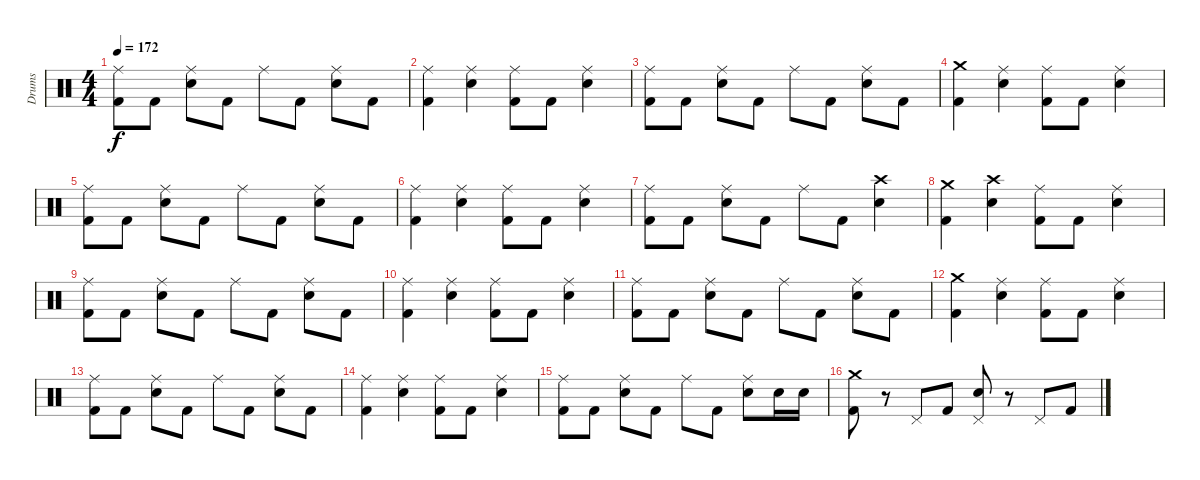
\track ("Drums" "Drums") {instrument percussion}
\staff {score}
\articulation defaults
\ts (4 4)
\tempo 172
\clef neutral
\ks c
("Ride (middle)" "Kick (hit) 2").8{dy f} "Kick (hit) 2".8 ("Ride (middle)" "Electric Snare (hit)").8 "Kick (hit) 2".8 "Ride (middle)".8 "Kick (hit) 2".8 ("Ride (middle)" "Electric Snare (hit)").8 "Kick (hit) 2".8 |
("Ride (middle)" "Kick (hit) 2").4 ("Ride (middle)" "Electric Snare (hit)").4 ("Ride (middle)" "Kick (hit) 2").8 "Kick (hit) 2".8 ("Ride (middle)" "Electric Snare (hit)").4 |
("Ride (middle)" "Kick (hit) 2").8 "Kick (hit) 2".8 ("Ride (middle)" "Electric Snare (hit)").8 "Kick (hit) 2".8 "Ride (middle)".8 "Kick (hit) 2".8 ("Ride (middle)" "Electric Snare (hit)").8 "Kick (hit) 2".8 |
("Crash medium (hit)" "Kick (hit) 2").4 ("Ride (middle)" "Electric Snare (hit)").4 ("Ride (middle)" "Kick (hit) 2").8 "Kick (hit) 2".8 ("Ride (middle)" "Electric Snare (hit)").4 |
("Ride (middle)" "Kick (hit) 2").8 "Kick (hit) 2".8 ("Ride (middle)" "Electric Snare (hit)").8 "Kick (hit) 2".8 "Ride (middle)".8 "Kick (hit) 2".8 ("Ride (middle)" "Electric Snare (hit)").8 "Kick (hit) 2".8 |
("Ride (middle)" "Kick (hit) 2").4 ("Ride (middle)" "Electric Snare (hit)").4 ("Ride (middle)" "Kick (hit) 2").8 "Kick (hit) 2".8 ("Ride (middle)" "Electric Snare (hit)").4 |
("Ride (middle)" "Kick (hit) 2").8 "Kick (hit) 2".8 ("Ride (middle)" "Electric Snare (hit)").8 "Kick (hit) 2".8 "Ride (middle)".8 "Kick (hit) 2".8 ("Crash high (hit)" "Electric Snare (hit)").4 |
("Crash medium (hit)" "Kick (hit) 2").4 ("Crash high (hit)" "Electric Snare (hit)").4 ("Ride (middle)" "Kick (hit) 2").8 "Kick (hit) 2".8 ("Ride (middle)" "Electric Snare (hit)").4 |
("Ride (middle)" "Kick (hit) 2").8 "Kick (hit) 2".8 ("Ride (middle)" "Electric Snare (hit)").8 "Kick (hit) 2".8 "Ride (middle)".8 "Kick (hit) 2".8 ("Ride (middle)" "Electric Snare (hit)").8 "Kick (hit) 2".8 |
("Ride (middle)" "Kick (hit) 2").4 ("Ride (middle)" "Electric Snare (hit)").4 ("Ride (middle)" "Kick (hit) 2").8 "Kick (hit) 2".8 ("Ride (middle)" "Electric Snare (hit)").4 |
("Ride (middle)" "Kick (hit) 2").8 "Kick (hit) 2".8 ("Ride (middle)" "Electric Snare (hit)").8 "Kick (hit) 2".8 "Ride (middle)".8 "Kick (hit) 2".8 ("Ride (middle)" "Electric Snare (hit)").8 "Kick (hit) 2".8 |
("Crash medium (hit)" "Kick (hit) 2").4 ("Ride (middle)" "Electric Snare (hit)").4 ("Ride (middle)" "Kick (hit) 2").8 "Kick (hit) 2".8 ("Ride (middle)" "Electric Snare (hit)").4 |
("Ride (middle)" "Kick (hit) 2").8 "Kick (hit) 2".8 ("Ride (middle)" "Electric Snare (hit)").8 "Kick (hit) 2".8 "Ride (middle)".8 "Kick (hit) 2".8 ("Ride (middle)" "Electric Snare (hit)").8 "Kick (hit) 2".8 |
("Ride (middle)" "Kick (hit) 2").4 ("Ride (middle)" "Electric Snare (hit)").4 ("Ride (middle)" "Kick (hit) 2").8 "Kick (hit) 2".8 ("Ride (middle)" "Electric Snare (hit)").4 |
("Ride (middle)" "Kick (hit) 2").8 "Kick (hit) 2".8 ("Ride (middle)" "Electric Snare (hit)").8 "Kick (hit) 2".8 "Ride (middle)".8 "Kick (hit) 2".8 ("Ride (middle)" "Electric Snare (hit)").8 "Electric Snare (hit)".16 "Electric Snare (hit)".16 |
\section ("" "")
("Crash medium (hit)" "Kick (hit) 2").8 r.8 "Pedal Hi-Hat (hit)".8 "Kick (hit) 2".8 ("Pedal Hi-Hat (hit)" "Electric Snare (hit)").8 r.8 "Pedal Hi-Hat (hit)".8 "Kick (hit) 2".8
